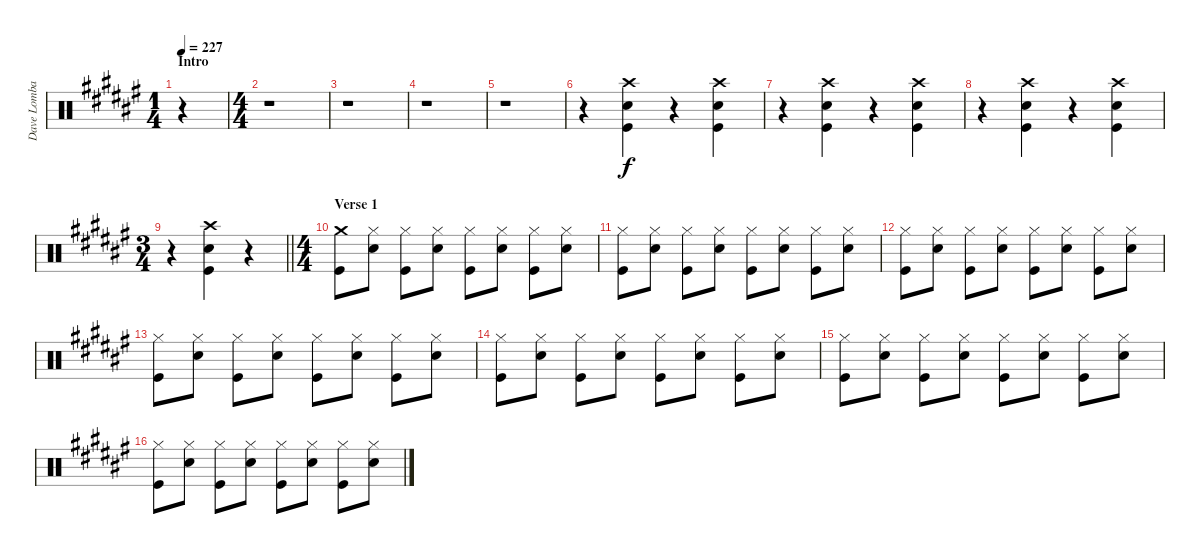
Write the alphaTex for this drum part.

\track ("Dave Lombardo" "Dave Lomba") {instrument percussion}
\staff {score}
\articulation defaults
\ts (1 4)
\section ("" "Intro")
\tempo 227
\clef neutral
\ks f#
r.4{dy f} |
\ts (4 4)
r.1 |
r.1 |
r.1 |
r.1 |
r.4 ("Crash high (hit)" "Snare (hit) 2" "Kick (hit)").4 r.4 ("Crash high (hit)" "Snare (hit) 2" "Kick (hit)").4 |
r.4 ("Crash high (hit)" "Snare (hit) 2" "Kick (hit)").4 r.4 ("Crash high (hit)" "Snare (hit) 2" "Kick (hit)").4 |
r.4 ("Crash high (hit)" "Snare (hit) 2" "Kick (hit)").4 r.4 ("Crash high (hit)" "Snare (hit) 2" "Kick (hit)").4 |
\ts (3 4)
\barLineRight lightlight
r.4 ("Crash high (hit)" "Snare (hit) 2" "Kick (hit)").4 r.4 |
\ts (4 4)
\section ("" "Verse 1")
("Crash medium (hit)" "Kick (hit)").8 ("Hi-Hat (closed)" "Snare (hit) 2").8 ("Hi-Hat (closed)" "Kick (hit)").8 ("Hi-Hat (closed)" "Snare (hit) 2").8 ("Hi-Hat (closed)" "Kick (hit)").8 ("Hi-Hat (closed)" "Snare (hit) 2").8 ("Hi-Hat (closed)" "Kick (hit)").8 ("Hi-Hat (closed)" "Snare (hit) 2").8 |
("Hi-Hat (closed)" "Kick (hit)").8 ("Hi-Hat (closed)" "Snare (hit) 2").8 ("Hi-Hat (closed)" "Kick (hit)").8 ("Hi-Hat (closed)" "Snare (hit) 2").8 ("Hi-Hat (closed)" "Kick (hit)").8 ("Hi-Hat (closed)" "Snare (hit) 2").8 ("Hi-Hat (closed)" "Kick (hit)").8 ("Hi-Hat (closed)" "Snare (hit) 2").8 |
("Hi-Hat (closed)" "Kick (hit)").8 ("Hi-Hat (closed)" "Snare (hit) 2").8 ("Hi-Hat (closed)" "Kick (hit)").8 ("Hi-Hat (closed)" "Snare (hit) 2").8 ("Hi-Hat (closed)" "Kick (hit)").8 ("Hi-Hat (closed)" "Snare (hit) 2").8 ("Hi-Hat (closed)" "Kick (hit)").8 ("Hi-Hat (closed)" "Snare (hit) 2").8 |
("Hi-Hat (closed)" "Kick (hit)").8 ("Hi-Hat (closed)" "Snare (hit) 2").8 ("Hi-Hat (closed)" "Kick (hit)").8 ("Hi-Hat (closed)" "Snare (hit) 2").8 ("Hi-Hat (closed)" "Kick (hit)").8 ("Hi-Hat (closed)" "Snare (hit) 2").8 ("Hi-Hat (closed)" "Kick (hit)").8 ("Hi-Hat (closed)" "Snare (hit) 2").8 |
("Hi-Hat (closed)" "Kick (hit)").8 ("Hi-Hat (closed)" "Snare (hit) 2").8 ("Hi-Hat (closed)" "Kick (hit)").8 ("Hi-Hat (closed)" "Snare (hit) 2").8 ("Hi-Hat (closed)" "Kick (hit)").8 ("Hi-Hat (closed)" "Snare (hit) 2").8 ("Hi-Hat (closed)" "Kick (hit)").8 ("Hi-Hat (closed)" "Snare (hit) 2").8 |
("Hi-Hat (closed)" "Kick (hit)").8 ("Hi-Hat (closed)" "Snare (hit) 2").8 ("Hi-Hat (closed)" "Kick (hit)").8 ("Hi-Hat (closed)" "Snare (hit) 2").8 ("Hi-Hat (closed)" "Kick (hit)").8 ("Hi-Hat (closed)" "Snare (hit) 2").8 ("Hi-Hat (closed)" "Kick (hit)").8 ("Hi-Hat (closed)" "Snare (hit) 2").8 |
("Hi-Hat (closed)" "Kick (hit)").8 ("Hi-Hat (closed)" "Snare (hit) 2").8 ("Hi-Hat (closed)" "Kick (hit)").8 ("Hi-Hat (closed)" "Snare (hit) 2").8 ("Hi-Hat (closed)" "Kick (hit)").8 ("Hi-Hat (closed)" "Snare (hit) 2").8 ("Hi-Hat (closed)" "Kick (hit)").8 ("Hi-Hat (closed)" "Snare (hit) 2").8
